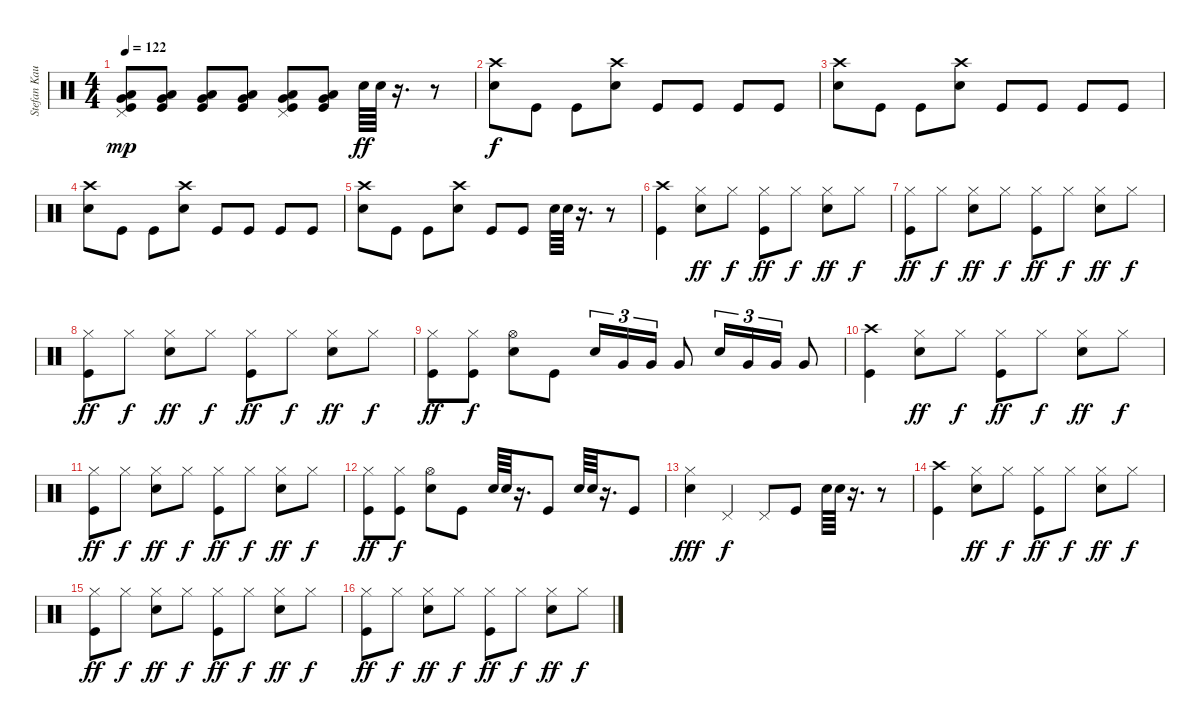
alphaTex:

\track ("Stefan Kaufmann" "Stefan Kau") {instrument percussion}
\staff {score}
\articulation defaults
\ts (4 4)
\tempo 122
\clef neutral
\ks c
("Pedal Hi-Hat (hit)" "Very Low Tom (hit)" "Kick (hit)" "Low Floor Tom (hit)").8{dy mp} ("Very Low Tom (hit)" "Kick (hit)" "Low Floor Tom (hit)").8 ("Very Low Tom (hit)" "Kick (hit)" "Low Floor Tom (hit)").8 ("Very Low Tom (hit)" "Kick (hit)" "Low Floor Tom (hit)").8 ("Pedal Hi-Hat (hit)" "Very Low Tom (hit)" "Kick (hit)" "Low Floor Tom (hit)").8 ("Very Low Tom (hit)" "Kick (hit)" "Low Floor Tom (hit)").8 "Snare (hit) 2".64{dy ff} "Snare (hit) 2".64 r.16{d} r.8 |
("Crash high (hit)" "Snare (hit) 2").8{dy f} "Kick (hit)".8 "Kick (hit)".8 ("Crash high (hit)" "Snare (hit) 2").8 "Kick (hit)".8 "Kick (hit)".8 "Kick (hit)".8 "Kick (hit)".8 |
("Crash high (hit)" "Snare (hit) 2").8 "Kick (hit)".8 "Kick (hit)".8 ("Crash high (hit)" "Snare (hit) 2").8 "Kick (hit)".8 "Kick (hit)".8 "Kick (hit)".8 "Kick (hit)".8 |
("Crash high (hit)" "Snare (hit) 2").8 "Kick (hit)".8 "Kick (hit)".8 ("Crash high (hit)" "Snare (hit) 2").8 "Kick (hit)".8 "Kick (hit)".8 "Kick (hit)".8 "Kick (hit)".8 |
("Crash high (hit)" "Snare (hit) 2").8 "Kick (hit)".8 "Kick (hit)".8 ("Crash high (hit)" "Snare (hit) 2").8 "Kick (hit)".8 "Kick (hit)".8 "Snare (hit) 2".64 "Snare (hit) 2".64 r.16{d} r.8 |
("Crash high (hit)" "Kick (hit)").4 ("Hi-Hat (closed)" "Snare (hit) 2").8{dy ff} "Hi-Hat (closed)".8{dy f} ("Hi-Hat (closed)" "Kick (hit)").8{dy ff} "Hi-Hat (closed)".8{dy f} ("Hi-Hat (closed)" "Snare (hit) 2").8{dy ff} "Hi-Hat (closed)".8{dy f} |
("Hi-Hat (closed)" "Kick (hit)").8{dy ff} "Hi-Hat (closed)".8{dy f} ("Hi-Hat (closed)" "Snare (hit) 2").8{dy ff} "Hi-Hat (closed)".8{dy f} ("Hi-Hat (closed)" "Kick (hit)").8{dy ff} "Hi-Hat (closed)".8{dy f} ("Hi-Hat (closed)" "Snare (hit) 2").8{dy ff} "Hi-Hat (closed)".8{dy f} |
("Hi-Hat (closed)" "Kick (hit)").8{dy ff} "Hi-Hat (closed)".8{dy f} ("Hi-Hat (closed)" "Snare (hit) 2").8{dy ff} "Hi-Hat (closed)".8{dy f} ("Hi-Hat (closed)" "Kick (hit)").8{dy ff} "Hi-Hat (closed)".8{dy f} ("Hi-Hat (closed)" "Snare (hit) 2").8{dy ff} "Hi-Hat (closed)".8{dy f} |
("Hi-Hat (closed)" "Kick (hit)").8{dy ff} ("Hi-Hat (closed)" "Kick (hit)").8{dy f} ("Hi-Hat (open)" "Snare (hit) 2").8 "Kick (hit)".8 "Snare (hit) 2".16{tu (3 2)} "Very Low Tom (hit)".16{tu (3 2)} "Very Low Tom (hit)".16{tu (3 2)} "Very Low Tom (hit)".8 "Snare (hit) 2".16{tu (3 2)} "Very Low Tom (hit)".16{tu (3 2)} "Very Low Tom (hit)".16{tu (3 2)} "Very Low Tom (hit)".8 |
("Crash high (hit)" "Kick (hit)").4 ("Hi-Hat (closed)" "Snare (hit) 2").8{dy ff} "Hi-Hat (closed)".8{dy f} ("Hi-Hat (closed)" "Kick (hit)").8{dy ff} "Hi-Hat (closed)".8{dy f} ("Hi-Hat (closed)" "Snare (hit) 2").8{dy ff} "Hi-Hat (closed)".8{dy f} |
("Hi-Hat (closed)" "Kick (hit)").8{dy ff} "Hi-Hat (closed)".8{dy f} ("Hi-Hat (closed)" "Snare (hit) 2").8{dy ff} "Hi-Hat (closed)".8{dy f} ("Hi-Hat (closed)" "Kick (hit)").8{dy ff} "Hi-Hat (closed)".8{dy f} ("Hi-Hat (closed)" "Snare (hit) 2").8{dy ff} "Hi-Hat (closed)".8{dy f} |
("Hi-Hat (closed)" "Kick (hit)").8{dy ff} ("Hi-Hat (closed)" "Kick (hit)").8{dy f} ("Hi-Hat (open)" "Snare (hit) 2").8 "Kick (hit)".8 "Snare (hit) 2".64 "Snare (hit) 2".64 r.16{d} "Kick (hit)".8 "Snare (hit) 2".64 "Snare (hit) 2".64 r.16{d} "Kick (hit)".8 |
("Hi-Hat (closed)" "Snare (hit) 2").4{dy fff} "Pedal Hi-Hat (hit)".4{dy f} "Pedal Hi-Hat (hit)".8 "Kick (hit)".8 "Snare (hit) 2".64 "Snare (hit) 2".64 r.16{d} r.8 |
("Crash high (hit)" "Kick (hit)").4 ("Hi-Hat (closed)" "Snare (hit) 2").8{dy ff} "Hi-Hat (closed)".8{dy f} ("Hi-Hat (closed)" "Kick (hit)").8{dy ff} "Hi-Hat (closed)".8{dy f} ("Hi-Hat (closed)" "Snare (hit) 2").8{dy ff} "Hi-Hat (closed)".8{dy f} |
("Hi-Hat (closed)" "Kick (hit)").8{dy ff} "Hi-Hat (closed)".8{dy f} ("Hi-Hat (closed)" "Snare (hit) 2").8{dy ff} "Hi-Hat (closed)".8{dy f} ("Hi-Hat (closed)" "Kick (hit)").8{dy ff} "Hi-Hat (closed)".8{dy f} ("Hi-Hat (closed)" "Snare (hit) 2").8{dy ff} "Hi-Hat (closed)".8{dy f} |
("Hi-Hat (closed)" "Kick (hit)").8{dy ff} "Hi-Hat (closed)".8{dy f} ("Hi-Hat (closed)" "Snare (hit) 2").8{dy ff} "Hi-Hat (closed)".8{dy f} ("Hi-Hat (closed)" "Kick (hit)").8{dy ff} "Hi-Hat (closed)".8{dy f} ("Hi-Hat (closed)" "Snare (hit) 2").8{dy ff} "Hi-Hat (closed)".8{dy f}
